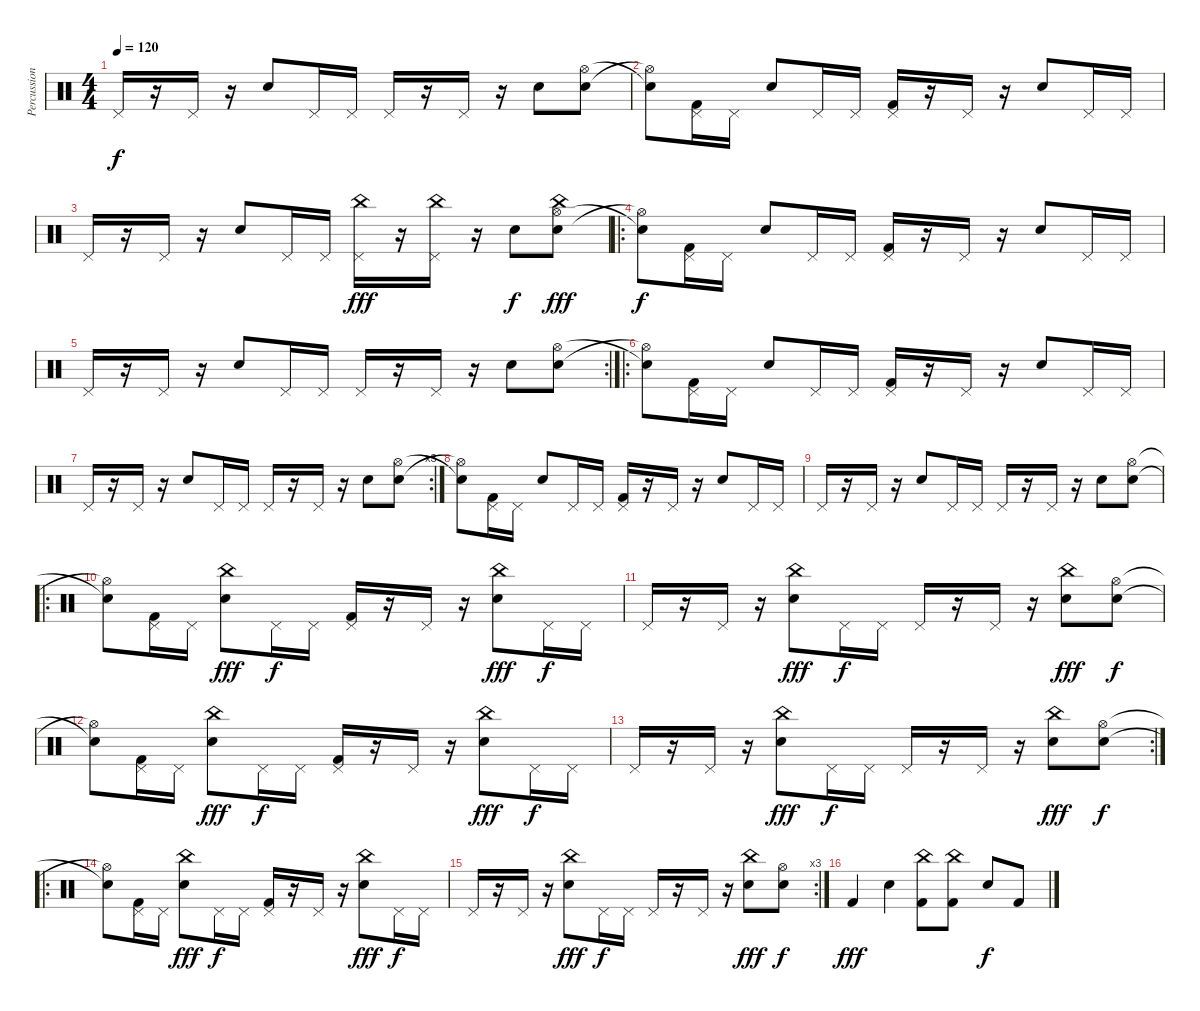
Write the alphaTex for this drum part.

\track ("Percussion" "Percussion") {instrument percussion}
\staff {score}
\articulation defaults
\ts (4 4)
\tempo 120
\clef neutral
\ks c "Pedal Hi-Hat (hit)".16{dy f}
r.16 "Pedal Hi-Hat (hit)".16 r.16 "Snare (hit) 2".8 "Pedal Hi-Hat (hit)".16 "Pedal Hi-Hat (hit)".16 "Pedal Hi-Hat (hit)".16 r.16 "Pedal Hi-Hat (hit)".16 r.16 "Snare (hit) 2".8 ("Hi-Hat (open)" "Electric Snare (hit)").8 |
("Electric Snare (hit)"{t} "Hi-Hat (open)"{t}).8 ("Pedal Hi-Hat (hit)" "Kick (hit) 2").16 "Pedal Hi-Hat (hit)".16 "Snare (hit) 2".8 "Pedal Hi-Hat (hit)".16 "Pedal Hi-Hat (hit)".16 ("Pedal Hi-Hat (hit)" "Kick (hit) 2").16 r.16 "Pedal Hi-Hat (hit)".16 r.16 "Snare (hit) 2".8 "Pedal Hi-Hat (hit)".16 "Pedal Hi-Hat (hit)".16 |
"Pedal Hi-Hat (hit)".16 r.16 "Pedal Hi-Hat (hit)".16 r.16 "Snare (hit) 2".8 "Pedal Hi-Hat (hit)".16 "Pedal Hi-Hat (hit)".16 ("Pedal Hi-Hat (hit)" "China (hit)").16{dy fff} r.16 ("Pedal Hi-Hat (hit)" "China (hit)").16 r.16 "Snare (hit) 2".8{dy f} ("Hi-Hat (open)" "Electric Snare (hit)" "China (hit)").8{dy fff} |
\ro
("Electric Snare (hit)"{t} "Hi-Hat (open)"{t}).8{dy f} ("Pedal Hi-Hat (hit)" "Kick (hit) 2").16 "Pedal Hi-Hat (hit)".16 "Snare (hit) 2".8 "Pedal Hi-Hat (hit)".16 "Pedal Hi-Hat (hit)".16 ("Pedal Hi-Hat (hit)" "Kick (hit) 2").16 r.16 "Pedal Hi-Hat (hit)".16 r.16 "Snare (hit) 2".8 "Pedal Hi-Hat (hit)".16 "Pedal Hi-Hat (hit)".16 |
\rc 2 "Pedal Hi-Hat (hit)".16
r.16 "Pedal Hi-Hat (hit)".16 r.16 "Snare (hit) 2".8 "Pedal Hi-Hat (hit)".16 "Pedal Hi-Hat (hit)".16 "Pedal Hi-Hat (hit)".16 r.16 "Pedal Hi-Hat (hit)".16 r.16 "Snare (hit) 2".8 ("Hi-Hat (open)" "Electric Snare (hit)").8 |
\ro
("Electric Snare (hit)"{t} "Hi-Hat (open)"{t}).8 ("Pedal Hi-Hat (hit)" "Kick (hit) 2").16 "Pedal Hi-Hat (hit)".16 "Snare (hit) 2".8 "Pedal Hi-Hat (hit)".16 "Pedal Hi-Hat (hit)".16 ("Pedal Hi-Hat (hit)" "Kick (hit) 2").16 r.16 "Pedal Hi-Hat (hit)".16 r.16 "Snare (hit) 2".8 "Pedal Hi-Hat (hit)".16 "Pedal Hi-Hat (hit)".16 |
\rc 3 "Pedal Hi-Hat (hit)".16
r.16 "Pedal Hi-Hat (hit)".16 r.16 "Snare (hit) 2".8 "Pedal Hi-Hat (hit)".16 "Pedal Hi-Hat (hit)".16 "Pedal Hi-Hat (hit)".16 r.16 "Pedal Hi-Hat (hit)".16 r.16 "Snare (hit) 2".8 ("Hi-Hat (open)" "Electric Snare (hit)").8 |
("Electric Snare (hit)"{t} "Hi-Hat (open)"{t}).8 ("Pedal Hi-Hat (hit)" "Kick (hit) 2").16 "Pedal Hi-Hat (hit)".16 "Snare (hit) 2".8 "Pedal Hi-Hat (hit)".16 "Pedal Hi-Hat (hit)".16 ("Pedal Hi-Hat (hit)" "Kick (hit) 2").16 r.16 "Pedal Hi-Hat (hit)".16 r.16 "Snare (hit) 2".8 "Pedal Hi-Hat (hit)".16 "Pedal Hi-Hat (hit)".16 |
"Pedal Hi-Hat (hit)".16 r.16 "Pedal Hi-Hat (hit)".16 r.16 "Snare (hit) 2".8 "Pedal Hi-Hat (hit)".16 "Pedal Hi-Hat (hit)".16 "Pedal Hi-Hat (hit)".16 r.16 "Pedal Hi-Hat (hit)".16 r.16 "Snare (hit) 2".8 ("Hi-Hat (open)" "Electric Snare (hit)").8 |
\ro
("Electric Snare (hit)"{t} "Hi-Hat (open)"{t}).8 ("Pedal Hi-Hat (hit)" "Kick (hit) 2").16 "Pedal Hi-Hat (hit)".16 ("Snare (hit) 2" "China (hit)").8{dy fff} "Pedal Hi-Hat (hit)".16{dy f} "Pedal Hi-Hat (hit)".16 ("Pedal Hi-Hat (hit)" "Kick (hit) 2").16 r.16 "Pedal Hi-Hat (hit)".16 r.16 ("Snare (hit) 2" "China (hit)").8{dy fff} "Pedal Hi-Hat (hit)".16{dy f} "Pedal Hi-Hat (hit)".16 |
"Pedal Hi-Hat (hit)".16 r.16 "Pedal Hi-Hat (hit)".16 r.16 ("Snare (hit) 2" "China (hit)").8{dy fff} "Pedal Hi-Hat (hit)".16{dy f} "Pedal Hi-Hat (hit)".16 "Pedal Hi-Hat (hit)".16 r.16 "Pedal Hi-Hat (hit)".16 r.16 ("Snare (hit) 2" "China (hit)").8{dy fff} ("Hi-Hat (open)" "Electric Snare (hit)").8{dy f} |
("Electric Snare (hit)"{t} "Hi-Hat (open)"{t}).8 ("Pedal Hi-Hat (hit)" "Kick (hit) 2").16 "Pedal Hi-Hat (hit)".16 ("Snare (hit) 2" "China (hit)").8{dy fff} "Pedal Hi-Hat (hit)".16{dy f} "Pedal Hi-Hat (hit)".16 ("Pedal Hi-Hat (hit)" "Kick (hit) 2").16 r.16 "Pedal Hi-Hat (hit)".16 r.16 ("Snare (hit) 2" "China (hit)").8{dy fff} "Pedal Hi-Hat (hit)".16{dy f} "Pedal Hi-Hat (hit)".16 |
\rc 2 "Pedal Hi-Hat (hit)".16
r.16 "Pedal Hi-Hat (hit)".16 r.16 ("Snare (hit) 2" "China (hit)").8{dy fff} "Pedal Hi-Hat (hit)".16{dy f} "Pedal Hi-Hat (hit)".16 "Pedal Hi-Hat (hit)".16 r.16 "Pedal Hi-Hat (hit)".16 r.16 ("Snare (hit) 2" "China (hit)").8{dy fff} ("Hi-Hat (open)" "Electric Snare (hit)").8{dy f} |
\ro
("Electric Snare (hit)"{t} "Hi-Hat (open)"{t}).8 ("Pedal Hi-Hat (hit)" "Kick (hit) 2").16 "Pedal Hi-Hat (hit)".16 ("Snare (hit) 2" "China (hit)").8{dy fff} "Pedal Hi-Hat (hit)".16{dy f} "Pedal Hi-Hat (hit)".16 ("Pedal Hi-Hat (hit)" "Kick (hit) 2").16 r.16 "Pedal Hi-Hat (hit)".16 r.16 ("Snare (hit) 2" "China (hit)").8{dy fff} "Pedal Hi-Hat (hit)".16{dy f} "Pedal Hi-Hat (hit)".16 |
\rc 3 "Pedal Hi-Hat (hit)".16
r.16 "Pedal Hi-Hat (hit)".16 r.16 ("Snare (hit) 2" "China (hit)").8{dy fff} "Pedal Hi-Hat (hit)".16{dy f} "Pedal Hi-Hat (hit)".16 "Pedal Hi-Hat (hit)".16 r.16 "Pedal Hi-Hat (hit)".16 r.16 ("Snare (hit) 2" "China (hit)").8{dy fff} ("Hi-Hat (open)" "Electric Snare (hit)").8{dy f} |
"Kick (hit) 2".4{dy fff} "Snare (hit) 2".4 ("Kick (hit) 2" "China (hit)").8 ("Kick (hit) 2" "China (hit)").8 "Snare (hit) 2".8{dy f} "Kick (hit) 2".8
